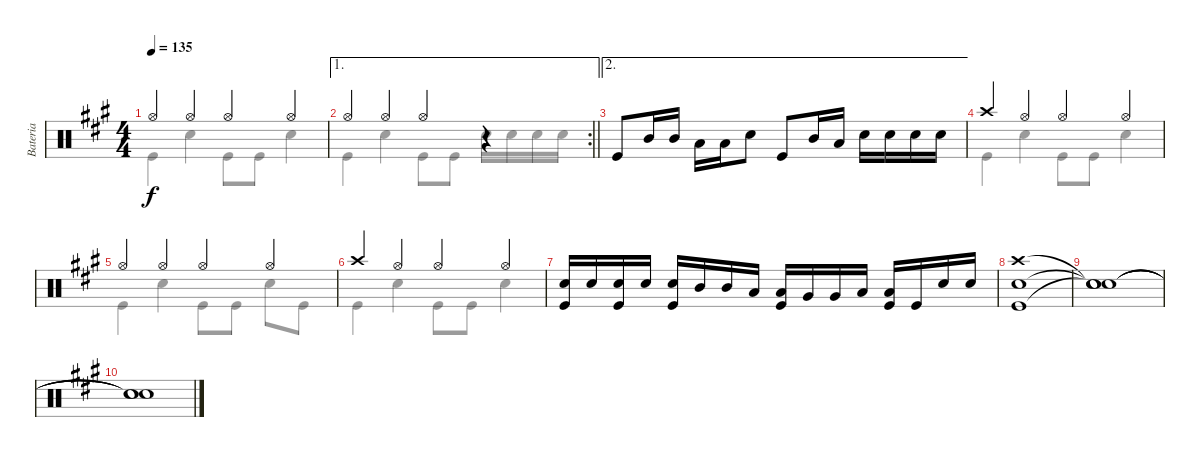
\track ("Bateria" "Bateria") {instrument percussion}
\staff {score}
\articulation defaults
\voice
\ts (4 4)
\tempo 135
\clef neutral
\ks a "Hi-Hat (open)".4{dy f} "Hi-Hat (open)".4 "Hi-Hat (open)".4 "Hi-Hat (open)".4
|
\ae 1
\rc 2
\barLineRight lightlight "Hi-Hat (open)".4 "Hi-Hat (open)".4 "Hi-Hat (open)".4
r.4 |
\ae 2 "Kick (hit)".8 "Mid Tom (hit)".16 "Mid Tom (hit)".16 "Low Tom (hit)".16 "Low Tom (hit)".16 "Snare (hit) 2".8 "Kick (hit)".8 "Mid Tom (hit)".16 "Low Tom (hit)".16 "Snare (hit) 2".16 "Snare (hit) 2".16 "Snare (hit) 2".16 "Snare (hit) 2".16
|
"Crash high (hit)".4 "Hi-Hat (open)".4 "Hi-Hat (open)".4 "Hi-Hat (open)".4 |
"Hi-Hat (open)".4 "Hi-Hat (open)".4 "Hi-Hat (open)".4 "Hi-Hat (open)".4 |
"Crash high (hit)".4 "Hi-Hat (open)".4 "Hi-Hat (open)".4 "Hi-Hat (open)".4 |
("Snare (hit) 2" "Kick (hit)").16 "Snare (hit) 2".16 ("Snare (hit) 2" "Kick (hit)").16 "Snare (hit) 2".16 ("Snare (hit) 2" "Kick (hit)").16 "Mid Tom (hit)".16 "Mid Tom (hit)".16 "Low Tom (hit)".16 ("Low Tom (hit)" "Kick (hit)").16 "Very Low Tom (hit)".16 "Very Low Tom (hit)".16 "Low Floor Tom (hit)".16 ("Low Floor Tom (hit)" "Kick (hit)").16 "Kick (hit)".16 "Snare (hit) 2".16 "Snare (hit) 2".16 |
("Crash high (hit)" "Snare (hit) 2" "Kick (hit)").1 |
("Snare (hit)"{t} "Snare (hit)"{t} "Snare (hit)"{t}).1 |
("Snare (hit)"{t} "Snare (hit)"{t} "Snare (hit)"{t}).1
\voice
\clef neutral
\ottava regular
\simile none
\ks a "Kick (hit)".4{dy f} "Snare (hit) 2".4 "Kick (hit)".8 "Kick (hit)".8 "Snare (hit) 2".4
|
\barLineRight lightlight "Kick (hit)".4 "Snare (hit) 2".4 "Kick (hit)".8 "Kick (hit)".8 "Snare (hit) 2".16 "Snare (hit) 2".16 "Snare (hit) 2".16 "Snare (hit) 2".16
|
|
"Kick (hit)".4 "Snare (hit) 2".4 "Kick (hit)".8 "Kick (hit)".8 "Snare (hit) 2".4 |
"Kick (hit)".4 "Snare (hit) 2".4 "Kick (hit)".8 "Kick (hit)".8 "Snare (hit) 2".8 "Kick (hit)".8 |
"Kick (hit)".4 "Snare (hit) 2".4 "Kick (hit)".8 "Kick (hit)".8 "Snare (hit) 2".4 |
|
|
|
